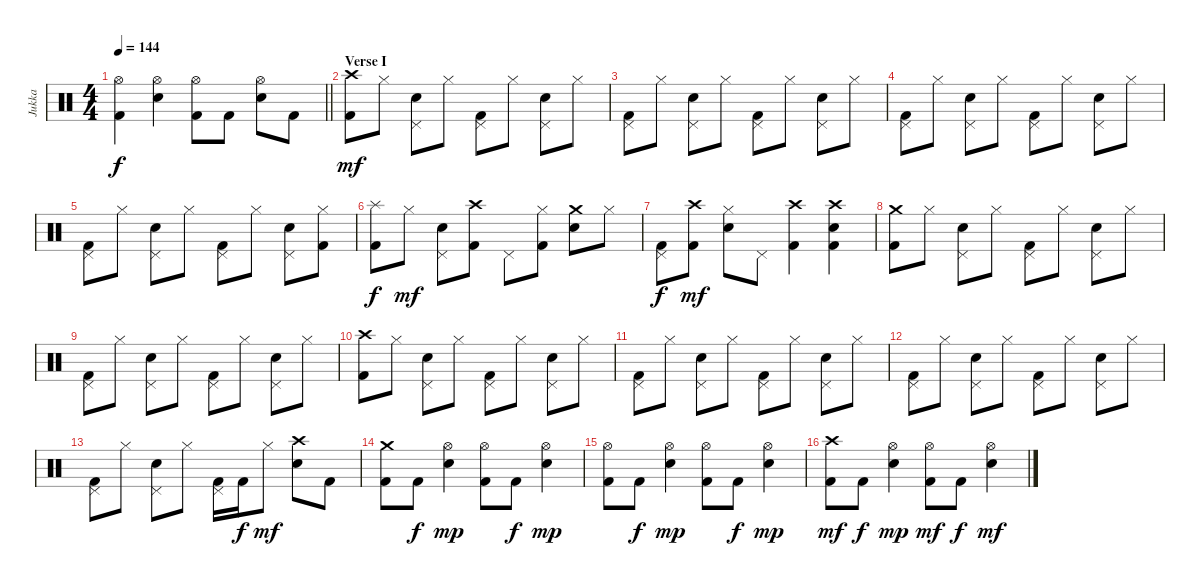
\track ("Jukka" "Jukka") {instrument percussion}
\staff {score}
\articulation defaults
\ts (4 4)
\tempo 144
\clef neutral
\barLineRight lightlight
\ks c
("Hi-Hat (open)" "Kick (hit) 2").4{dy f} ("Hi-Hat (open)" "Electric Snare (hit)").4 ("Hi-Hat (open)" "Kick (hit) 2").8 "Kick (hit) 2".8 ("Hi-Hat (open)" "Electric Snare (hit)").8 "Kick (hit) 2".8 |
\section ("" "Verse I")
("Crash high (hit)" "Kick (hit) 2").8{dy mf} "Hi-Hat (closed)".8 ("Pedal Hi-Hat (hit)" "Electric Snare (hit)").8 "Hi-Hat (closed)".8 ("Pedal Hi-Hat (hit)" "Kick (hit) 2").8 "Hi-Hat (closed)".8 ("Pedal Hi-Hat (hit)" "Electric Snare (hit)").8 "Hi-Hat (closed)".8 |
("Pedal Hi-Hat (hit)" "Kick (hit) 2").8 "Hi-Hat (closed)".8 ("Pedal Hi-Hat (hit)" "Electric Snare (hit)").8 "Hi-Hat (closed)".8 ("Pedal Hi-Hat (hit)" "Kick (hit) 2").8 "Hi-Hat (closed)".8 ("Pedal Hi-Hat (hit)" "Electric Snare (hit)").8 "Hi-Hat (closed)".8 |
("Pedal Hi-Hat (hit)" "Kick (hit) 2").8 "Hi-Hat (closed)".8 ("Pedal Hi-Hat (hit)" "Electric Snare (hit)").8 "Hi-Hat (closed)".8 ("Pedal Hi-Hat (hit)" "Kick (hit) 2").8 "Hi-Hat (closed)".8 ("Pedal Hi-Hat (hit)" "Electric Snare (hit)").8 "Hi-Hat (closed)".8 |
("Pedal Hi-Hat (hit)" "Kick (hit) 2").8 "Hi-Hat (closed)".8 ("Pedal Hi-Hat (hit)" "Electric Snare (hit)").8 "Hi-Hat (closed)".8 ("Pedal Hi-Hat (hit)" "Kick (hit) 2").8 "Hi-Hat (closed)".8 ("Pedal Hi-Hat (hit)" "Electric Snare (hit)").8 ("Hi-Hat (closed)" "Kick (hit) 2").8 |
("Splash (hit)" "Kick (hit) 2").8{dy f} "Hi-Hat (closed)".8{dy mf} ("Pedal Hi-Hat (hit)" "Electric Snare (hit)").8 ("Crash high (hit)" "Kick (hit) 2").8 "Pedal Hi-Hat (hit)".8 ("Hi-Hat (closed)" "Kick (hit) 2").8 ("Crash medium (hit)" "Electric Snare (hit)").8 "Hi-Hat (closed)".8 |
("Pedal Hi-Hat (hit)" "Kick (hit) 2").8{dy f} ("Crash high (hit)" "Kick (hit) 2").8{dy mf} ("Hi-Hat (closed)" "Electric Snare (hit)").8 "Pedal Hi-Hat (hit)".8 ("Crash high (hit)" "Kick (hit) 2").4 ("Crash high (hit)" "Electric Snare (hit)" "Kick (hit) 2").4 |
("Crash medium (hit)" "Kick (hit) 2").8 "Hi-Hat (closed)".8 ("Pedal Hi-Hat (hit)" "Electric Snare (hit)").8 "Hi-Hat (closed)".8 ("Pedal Hi-Hat (hit)" "Kick (hit) 2").8 "Hi-Hat (closed)".8 ("Pedal Hi-Hat (hit)" "Electric Snare (hit)").8 "Hi-Hat (closed)".8 |
("Pedal Hi-Hat (hit)" "Kick (hit) 2").8 "Hi-Hat (closed)".8 ("Pedal Hi-Hat (hit)" "Electric Snare (hit)").8 "Hi-Hat (closed)".8 ("Pedal Hi-Hat (hit)" "Kick (hit) 2").8 "Hi-Hat (closed)".8 ("Pedal Hi-Hat (hit)" "Electric Snare (hit)").8 "Hi-Hat (closed)".8 |
("Crash high (hit)" "Kick (hit) 2").8 "Hi-Hat (closed)".8 ("Pedal Hi-Hat (hit)" "Electric Snare (hit)").8 "Hi-Hat (closed)".8 ("Pedal Hi-Hat (hit)" "Kick (hit) 2").8 "Hi-Hat (closed)".8 ("Pedal Hi-Hat (hit)" "Electric Snare (hit)").8 "Hi-Hat (closed)".8 |
("Pedal Hi-Hat (hit)" "Kick (hit) 2").8 "Hi-Hat (closed)".8 ("Pedal Hi-Hat (hit)" "Electric Snare (hit)").8 "Hi-Hat (closed)".8 ("Pedal Hi-Hat (hit)" "Kick (hit) 2").8 "Hi-Hat (closed)".8 ("Pedal Hi-Hat (hit)" "Electric Snare (hit)").8 "Hi-Hat (closed)".8 |
("Pedal Hi-Hat (hit)" "Kick (hit) 2").8 "Hi-Hat (closed)".8 ("Pedal Hi-Hat (hit)" "Electric Snare (hit)").8 "Hi-Hat (closed)".8 ("Pedal Hi-Hat (hit)" "Kick (hit) 2").8 "Hi-Hat (closed)".8 ("Pedal Hi-Hat (hit)" "Electric Snare (hit)").8 "Hi-Hat (closed)".8 |
("Pedal Hi-Hat (hit)" "Kick (hit) 2").8 "Hi-Hat (closed)".8 ("Pedal Hi-Hat (hit)" "Electric Snare (hit)").8 "Hi-Hat (closed)".8 ("Pedal Hi-Hat (hit)" "Kick (hit) 2").16 "Kick (hit) 2".16{dy f} "Hi-Hat (closed)".8{dy mf} ("Crash high (hit)" "Electric Snare (hit)").8 "Kick (hit) 2".8 |
("Crash medium (hit)" "Kick (hit) 2").8 "Kick (hit) 2".8{dy f} ("Hi-Hat (open)" "Electric Snare (hit)").4{dy mp} ("Hi-Hat (open)" "Kick (hit) 2").8 "Kick (hit) 2".8{dy f} ("Hi-Hat (open)" "Electric Snare (hit)").4{dy mp} |
("Hi-Hat (open)" "Kick (hit) 2").8 "Kick (hit) 2".8{dy f} ("Hi-Hat (open)" "Electric Snare (hit)").4{dy mp} ("Hi-Hat (open)" "Kick (hit) 2").8 "Kick (hit) 2".8{dy f} ("Hi-Hat (open)" "Electric Snare (hit)").4{dy mp} |
("Crash high (hit)" "Kick (hit) 2").8{dy mf} "Kick (hit) 2".8{dy f} ("Hi-Hat (open)" "Electric Snare (hit)").4{dy mp} ("Hi-Hat (open)" "Kick (hit) 2").8{dy mf} "Kick (hit) 2".8{dy f} ("Hi-Hat (open)" "Electric Snare (hit)").4{dy mf}
